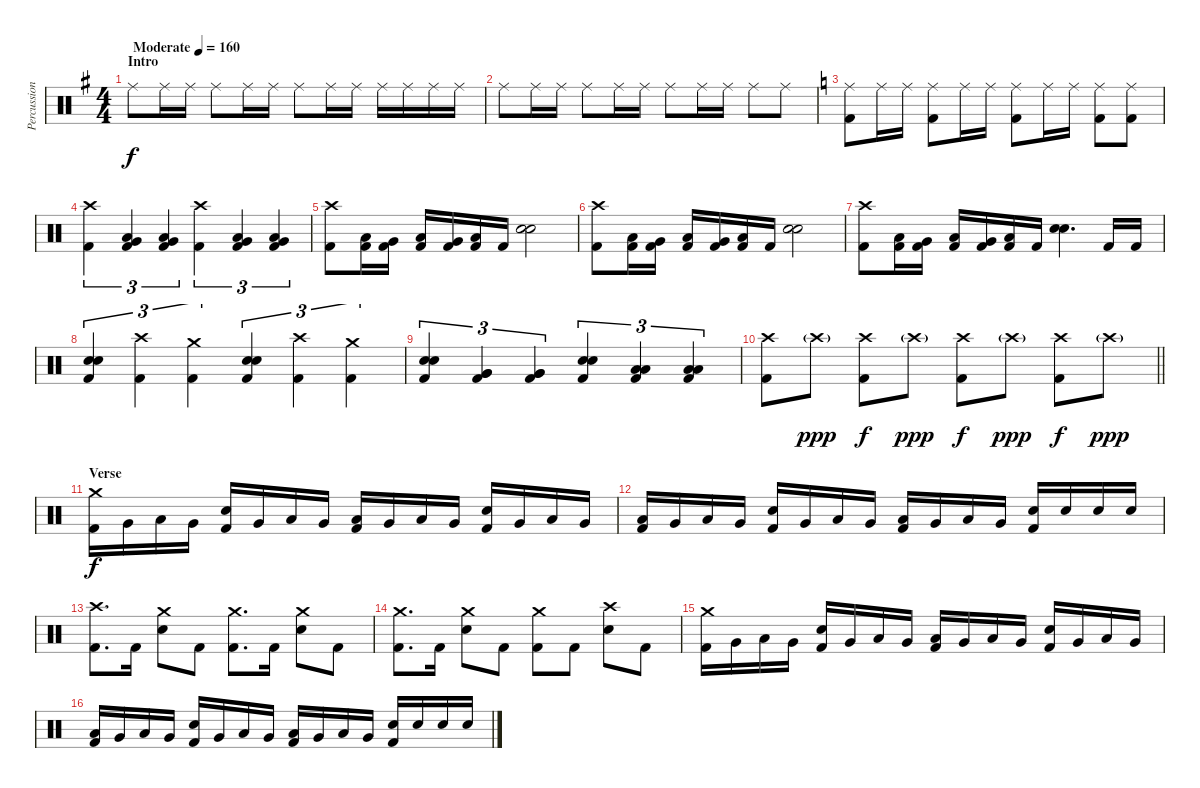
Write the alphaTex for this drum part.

\track ("Percussion" "Percussion") {instrument percussion}
\staff {score}
\articulation defaults
\ts (4 4)
\section ("" "Intro")
\tempo (160 "Moderate")
\clef neutral
\ks g "Ride (middle)".8{dy f} "Ride (middle)".16 "Ride (middle)".16 "Ride (middle)".8 "Ride (middle)".16 "Ride (middle)".16 "Ride (middle)".8 "Ride (middle)".16 "Ride (middle)".16 "Ride (middle)".16 "Ride (middle)".16 "Ride (middle)".16 "Ride (middle)".16
|
"Ride (middle)".8 "Ride (middle)".16 "Ride (middle)".16 "Ride (middle)".8 "Ride (middle)".16 "Ride (middle)".16 "Ride (middle)".8 "Ride (middle)".16 "Ride (middle)".16 "Ride (middle)".8 "Ride (middle)".8 |
\ks c
("Ride (middle)" "Kick (hit) 2").8 "Ride (middle)".16 "Ride (middle)".16 ("Ride (middle)" "Kick (hit) 2").8 "Ride (middle)".16 "Ride (middle)".16 ("Ride (middle)" "Kick (hit) 2").8 "Ride (middle)".16 "Ride (middle)".16 ("Ride (middle)" "Kick (hit) 2").8 ("Ride (middle)" "Kick (hit) 2").8 |
("Crash high (hit)" "Kick (hit) 2").4{tu (3 2)} ("Very Low Tom (hit)" "Low Floor Tom (hit)" "Kick (hit) 2").4{tu (3 2)} ("Very Low Tom (hit)" "Low Floor Tom (hit)" "Kick (hit) 2").4{tu (3 2)} ("Crash high (hit)" "Kick (hit) 2").4{tu (3 2)} ("Very Low Tom (hit)" "Low Floor Tom (hit)" "Kick (hit) 2").4{tu (3 2)} ("Very Low Tom (hit)" "Low Floor Tom (hit)" "Kick (hit) 2").4{tu (3 2)} |
("Crash high (hit)" "Kick (hit) 2").8 ("Low Floor Tom (hit)" "Kick (hit) 2").16 ("Very Low Tom (hit)" "Kick (hit) 2").16 ("Low Floor Tom (hit)" "Kick (hit) 2").16 ("Very Low Tom (hit)" "Kick (hit) 2").16 ("Low Floor Tom (hit)" "Kick (hit) 2").16 "Kick (hit) 2".16 ("Electric Snare (hit)" "Electric Snare (hit)").2 |
("Crash high (hit)" "Kick (hit) 2").8 ("Low Floor Tom (hit)" "Kick (hit) 2").16 ("Very Low Tom (hit)" "Kick (hit) 2").16 ("Low Floor Tom (hit)" "Kick (hit) 2").16 ("Very Low Tom (hit)" "Kick (hit) 2").16 ("Low Floor Tom (hit)" "Kick (hit) 2").16 "Kick (hit) 2".16 ("Electric Snare (hit)" "Electric Snare (hit)").2 |
("Crash high (hit)" "Kick (hit) 2").8 ("Low Floor Tom (hit)" "Kick (hit) 2").16 ("Very Low Tom (hit)" "Kick (hit) 2").16 ("Low Floor Tom (hit)" "Kick (hit) 2").16 ("Very Low Tom (hit)" "Kick (hit) 2").16 ("Low Floor Tom (hit)" "Kick (hit) 2").16 "Kick (hit) 2".16 ("Electric Snare (hit)" "Electric Snare (hit)").4{d} "Kick (hit) 2".16 "Kick (hit) 2".16 |
("Electric Snare (hit)" "Electric Snare (hit)" "Kick (hit) 2").4{tu (3 2)} ("Crash high (hit)" "Kick (hit) 2").4{tu (3 2)} ("Crash medium (hit)" "Kick (hit) 2").4{tu (3 2)} ("Electric Snare (hit)" "Electric Snare (hit)" "Kick (hit) 2").4{tu (3 2)} ("Crash high (hit)" "Kick (hit) 2").4{tu (3 2)} ("Crash medium (hit)" "Kick (hit) 2").4{tu (3 2)} |
("Electric Snare (hit)" "Electric Snare (hit)" "Kick (hit) 2").4{tu (3 2)} ("Very Low Tom (hit)" "Very Low Tom (hit)" "Kick (hit) 2").4{tu (3 2)} ("Very Low Tom (hit)" "Very Low Tom (hit)" "Kick (hit) 2").4{tu (3 2)} ("Electric Snare (hit)" "Electric Snare (hit)" "Kick (hit) 2").4{tu (3 2)} ("Low Floor Tom (hit)" "Low Floor Tom (hit)" "Kick (hit) 2").4{tu (3 2)} ("Low Floor Tom (hit)" "Low Floor Tom (hit)" "Kick (hit) 2").4{tu (3 2)} |
\barLineRight lightlight
("Crash high (hit)" "Kick (hit) 2").8 "Crash high (hit)"{g}.8{dy ppp} ("Crash high (hit)" "Kick (hit) 2").8{dy f} "Crash high (hit)"{g}.8{dy ppp} ("Crash high (hit)" "Kick (hit) 2").8{dy f} "Crash high (hit)"{g}.8{dy ppp} ("Crash high (hit)" "Kick (hit) 2").8{dy f} "Crash high (hit)"{g}.8{dy ppp} |
\section ("" "Verse")
("Crash medium (hit)" "Kick (hit) 2").16{dy f} "Very Low Tom (hit)".16 "Low Floor Tom (hit)".16 "Very Low Tom (hit)".16 ("Electric Snare (hit)" "Kick (hit) 2").16 "Very Low Tom (hit)".16 "Low Floor Tom (hit)".16 "Very Low Tom (hit)".16 ("Low Floor Tom (hit)" "Kick (hit) 2").16 "Very Low Tom (hit)".16 "Low Floor Tom (hit)".16 "Very Low Tom (hit)".16 ("Electric Snare (hit)" "Kick (hit) 2").16 "Very Low Tom (hit)".16 "Low Floor Tom (hit)".16 "Very Low Tom (hit)".16 |
("Low Floor Tom (hit)" "Kick (hit) 2").16 "Very Low Tom (hit)".16 "Low Floor Tom (hit)".16 "Very Low Tom (hit)".16 ("Electric Snare (hit)" "Kick (hit) 2").16 "Very Low Tom (hit)".16 "Low Floor Tom (hit)".16 "Very Low Tom (hit)".16 ("Low Floor Tom (hit)" "Kick (hit) 2").16 "Very Low Tom (hit)".16 "Low Floor Tom (hit)".16 "Very Low Tom (hit)".16 ("Electric Snare (hit)" "Kick (hit) 2").16 "Electric Snare (hit)".16 "Electric Snare (hit)".16 "Electric Snare (hit)".16 |
("Crash high (hit)" "Kick (hit) 2").8{d} "Kick (hit) 2".16 ("Crash medium (hit)" "Electric Snare (hit)").8 "Kick (hit) 2".8 ("Crash medium (hit)" "Kick (hit) 2").8{d} "Kick (hit) 2".16 ("Crash medium (hit)" "Electric Snare (hit)").8 "Kick (hit) 2".8 |
("Crash medium (hit)" "Kick (hit) 2").8{d} "Kick (hit) 2".16 ("Crash medium (hit)" "Electric Snare (hit)").8 "Kick (hit) 2".8 ("Crash medium (hit)" "Kick (hit) 2").8 "Kick (hit) 2".8 ("Crash high (hit)" "Electric Snare (hit)").8 "Kick (hit) 2".8 |
("Crash medium (hit)" "Kick (hit) 2").16 "Very Low Tom (hit)".16 "Low Floor Tom (hit)".16 "Very Low Tom (hit)".16 ("Electric Snare (hit)" "Kick (hit) 2").16 "Very Low Tom (hit)".16 "Low Floor Tom (hit)".16 "Very Low Tom (hit)".16 ("Low Floor Tom (hit)" "Kick (hit) 2").16 "Very Low Tom (hit)".16 "Low Floor Tom (hit)".16 "Very Low Tom (hit)".16 ("Electric Snare (hit)" "Kick (hit) 2").16 "Very Low Tom (hit)".16 "Low Floor Tom (hit)".16 "Very Low Tom (hit)".16 |
("Low Floor Tom (hit)" "Kick (hit) 2").16 "Very Low Tom (hit)".16 "Low Floor Tom (hit)".16 "Very Low Tom (hit)".16 ("Electric Snare (hit)" "Kick (hit) 2").16 "Very Low Tom (hit)".16 "Low Floor Tom (hit)".16 "Very Low Tom (hit)".16 ("Low Floor Tom (hit)" "Kick (hit) 2").16 "Very Low Tom (hit)".16 "Low Floor Tom (hit)".16 "Very Low Tom (hit)".16 ("Electric Snare (hit)" "Kick (hit) 2").16 "Electric Snare (hit)".16 "Electric Snare (hit)".16 "Electric Snare (hit)".16
